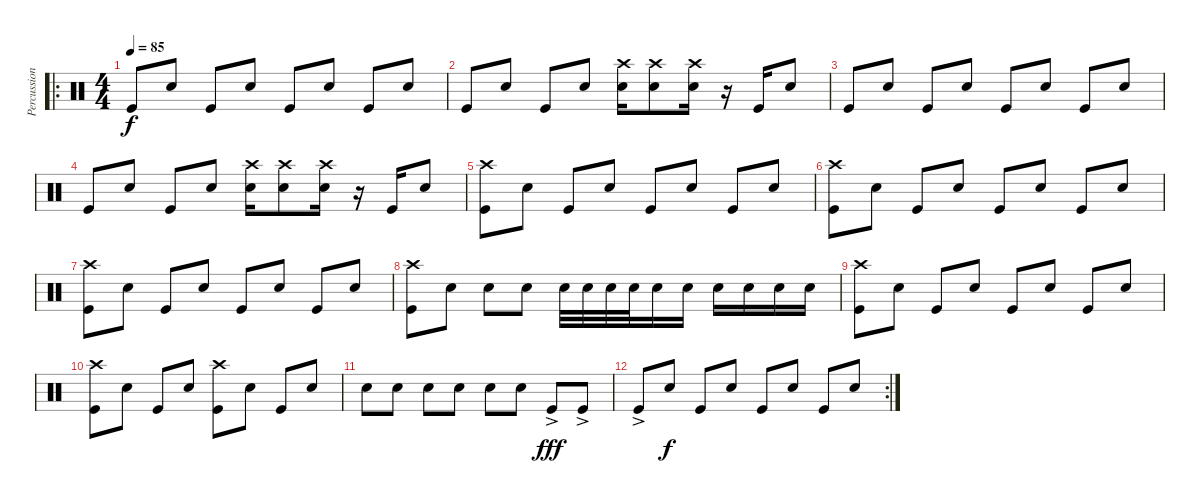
\track ("Percussion" "Percussion") {instrument percussion}
\staff {score}
\articulation defaults
\ro
\ts (4 4)
\tempo 85
\clef neutral
\ks c "Kick (hit)".8{dy f} "Electric Snare (hit)".8 "Kick (hit)".8 "Electric Snare (hit)".8 "Kick (hit)".8 "Electric Snare (hit)".8 "Kick (hit)".8 "Electric Snare (hit)".8
|
"Kick (hit)".8 "Electric Snare (hit)".8 "Kick (hit)".8 "Electric Snare (hit)".8 ("Electric Snare (hit)" "Crash high (hit)").16 ("Electric Snare (hit)" "Crash high (hit)").8 ("Electric Snare (hit)" "Crash high (hit)").16 r.16 "Kick (hit)".16 "Electric Snare (hit)".8 |
"Kick (hit)".8 "Electric Snare (hit)".8 "Kick (hit)".8 "Electric Snare (hit)".8 "Kick (hit)".8 "Electric Snare (hit)".8 "Kick (hit)".8 "Electric Snare (hit)".8 |
"Kick (hit)".8 "Electric Snare (hit)".8 "Kick (hit)".8 "Electric Snare (hit)".8 ("Electric Snare (hit)" "Crash high (hit)").16 ("Electric Snare (hit)" "Crash high (hit)").8 ("Electric Snare (hit)" "Crash high (hit)").16 r.16 "Kick (hit)".16 "Electric Snare (hit)".8 |
("Kick (hit)" "Crash high (hit)").8 "Electric Snare (hit)".8 "Kick (hit)".8 "Electric Snare (hit)".8 "Kick (hit)".8 "Electric Snare (hit)".8 "Kick (hit)".8 "Electric Snare (hit)".8 |
("Kick (hit)" "Crash high (hit)").8 "Electric Snare (hit)".8 "Kick (hit)".8 "Electric Snare (hit)".8 "Kick (hit)".8 "Electric Snare (hit)".8 "Kick (hit)".8 "Electric Snare (hit)".8 |
("Kick (hit)" "Crash high (hit)").8 "Electric Snare (hit)".8 "Kick (hit)".8 "Electric Snare (hit)".8 "Kick (hit)".8 "Electric Snare (hit)".8 "Kick (hit)".8 "Electric Snare (hit)".8 |
("Kick (hit)" "Crash high (hit)").8 "Electric Snare (hit)".8 "Electric Snare (hit)".8 "Electric Snare (hit)".8 "Electric Snare (hit)".32 "Electric Snare (hit)".32 "Electric Snare (hit)".32 "Electric Snare (hit)".32 "Electric Snare (hit)".16 "Electric Snare (hit)".16 "Electric Snare (hit)".16 "Electric Snare (hit)".16 "Electric Snare (hit)".16 "Electric Snare (hit)".16 |
("Kick (hit)" "Crash high (hit)").8 "Electric Snare (hit)".8 "Kick (hit)".8 "Electric Snare (hit)".8 "Kick (hit)".8 "Electric Snare (hit)".8 "Kick (hit)".8 "Electric Snare (hit)".8 |
("Kick (hit)" "Crash high (hit)").8 "Electric Snare (hit)".8 "Kick (hit)".8 "Electric Snare (hit)".8 ("Kick (hit)" "Crash high (hit)").8 "Electric Snare (hit)".8 "Kick (hit)".8 "Electric Snare (hit)".8 |
"Electric Snare (hit)".8 "Electric Snare (hit)".8 "Electric Snare (hit)".8 "Electric Snare (hit)".8 "Electric Snare (hit)".8 "Electric Snare (hit)".8 "Kick (hit)"{ac}.8{dy fff} "Kick (hit)"{ac}.8 |
\rc 2 "Kick (hit)"{ac}.8 "Electric Snare (hit)".8{dy f} "Kick (hit)".8 "Electric Snare (hit)".8 "Kick (hit)".8 "Electric Snare (hit)".8 "Kick (hit)".8 "Electric Snare (hit)".8
